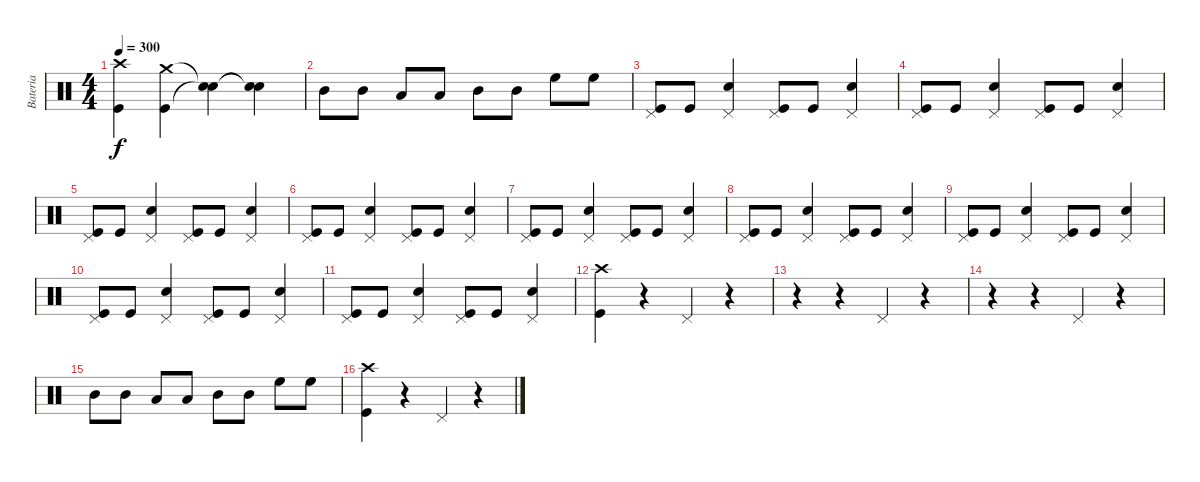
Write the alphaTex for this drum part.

\track ("Bateria" "Bateria") {instrument percussion}
\staff {score}
\articulation defaults
\ts (4 4)
\tempo 300
\clef neutral
\ks c
("Crash high (hit)" "Kick (hit)").4{dy f} ("Crash medium (hit)" "Kick (hit)").4 ("Snare (hit)"{t} "Snare (hit)"{t}).4 ("Snare (hit)"{t} "Snare (hit)"{t}).4 |
"Mid Tom (hit)".8 "Mid Tom (hit)".8 "Low Tom (hit)".8 "Low Tom (hit)".8 "Mid Tom (hit)".8 "Mid Tom (hit)".8 "High Floor Tom (hit)".8 "High Floor Tom (hit)".8 |
("Pedal Hi-Hat (hit)" "Kick (hit)").8 "Kick (hit)".8 ("Pedal Hi-Hat (hit)" "Snare (hit) 2").4 ("Pedal Hi-Hat (hit)" "Kick (hit)").8 "Kick (hit)".8 ("Pedal Hi-Hat (hit)" "Snare (hit) 2").4 |
("Pedal Hi-Hat (hit)" "Kick (hit)").8 "Kick (hit)".8 ("Pedal Hi-Hat (hit)" "Snare (hit) 2").4 ("Pedal Hi-Hat (hit)" "Kick (hit)").8 "Kick (hit)".8 ("Pedal Hi-Hat (hit)" "Snare (hit) 2").4 |
("Pedal Hi-Hat (hit)" "Kick (hit)").8 "Kick (hit)".8 ("Pedal Hi-Hat (hit)" "Snare (hit) 2").4 ("Pedal Hi-Hat (hit)" "Kick (hit)").8 "Kick (hit)".8 ("Pedal Hi-Hat (hit)" "Snare (hit) 2").4 |
("Pedal Hi-Hat (hit)" "Kick (hit)").8 "Kick (hit)".8 ("Pedal Hi-Hat (hit)" "Snare (hit) 2").4 ("Pedal Hi-Hat (hit)" "Kick (hit)").8 "Kick (hit)".8 ("Pedal Hi-Hat (hit)" "Snare (hit) 2").4 |
("Pedal Hi-Hat (hit)" "Kick (hit)").8 "Kick (hit)".8 ("Pedal Hi-Hat (hit)" "Snare (hit) 2").4 ("Pedal Hi-Hat (hit)" "Kick (hit)").8 "Kick (hit)".8 ("Pedal Hi-Hat (hit)" "Snare (hit) 2").4 |
("Pedal Hi-Hat (hit)" "Kick (hit)").8 "Kick (hit)".8 ("Pedal Hi-Hat (hit)" "Snare (hit) 2").4 ("Pedal Hi-Hat (hit)" "Kick (hit)").8 "Kick (hit)".8 ("Pedal Hi-Hat (hit)" "Snare (hit) 2").4 |
("Pedal Hi-Hat (hit)" "Kick (hit)").8 "Kick (hit)".8 ("Pedal Hi-Hat (hit)" "Snare (hit) 2").4 ("Pedal Hi-Hat (hit)" "Kick (hit)").8 "Kick (hit)".8 ("Pedal Hi-Hat (hit)" "Snare (hit) 2").4 |
("Pedal Hi-Hat (hit)" "Kick (hit)").8 "Kick (hit)".8 ("Pedal Hi-Hat (hit)" "Snare (hit) 2").4 ("Pedal Hi-Hat (hit)" "Kick (hit)").8 "Kick (hit)".8 ("Pedal Hi-Hat (hit)" "Snare (hit) 2").4 |
("Pedal Hi-Hat (hit)" "Kick (hit)").8 "Kick (hit)".8 ("Pedal Hi-Hat (hit)" "Snare (hit) 2").4 ("Pedal Hi-Hat (hit)" "Kick (hit)").8 "Kick (hit)".8 ("Pedal Hi-Hat (hit)" "Snare (hit) 2").4 |
("Crash high (hit)" "Kick (hit)").4 r.4 "Pedal Hi-Hat (hit)".4 r.4 |
r.4 r.4 "Pedal Hi-Hat (hit)".4 r.4 |
r.4 r.4 "Pedal Hi-Hat (hit)".4 r.4 |
"Mid Tom (hit)".8 "Mid Tom (hit)".8 "Low Tom (hit)".8 "Low Tom (hit)".8 "Mid Tom (hit)".8 "Mid Tom (hit)".8 "High Floor Tom (hit)".8 "High Floor Tom (hit)".8 |
("Crash high (hit)" "Kick (hit)").4 r.4 "Pedal Hi-Hat (hit)".4 r.4
